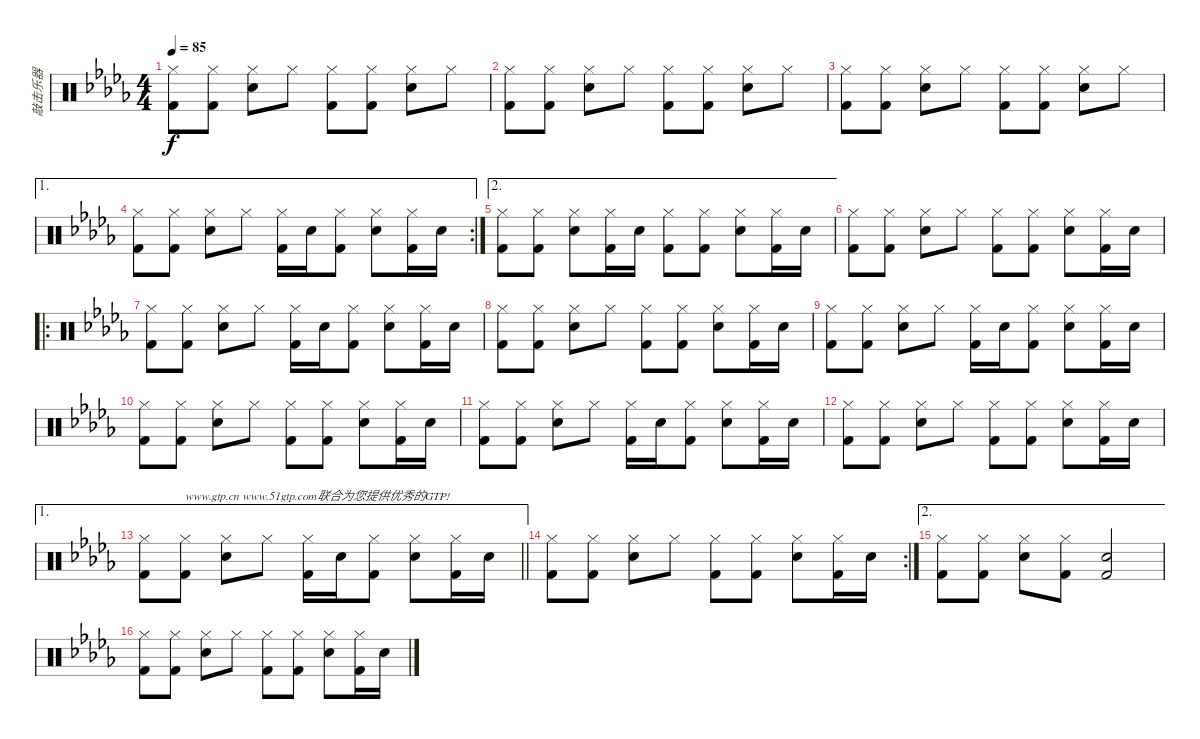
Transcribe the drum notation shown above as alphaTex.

\track ("敲击乐器" "敲击乐器") {instrument percussion}
\staff {score}
\articulation defaults
\ts (4 4)
\tempo 85
\clef neutral
\ks db
("Hi-Hat (closed)" "Kick (hit) 2").8{dy f} ("Hi-Hat (closed)" "Kick (hit) 2").8 ("Hi-Hat (closed)" "Electric Snare (hit)").8 "Hi-Hat (closed)".8 ("Hi-Hat (closed)" "Kick (hit) 2").8 ("Hi-Hat (closed)" "Kick (hit) 2").8 ("Hi-Hat (closed)" "Electric Snare (hit)").8 "Hi-Hat (closed)".8 |
("Hi-Hat (closed)" "Kick (hit) 2").8 ("Hi-Hat (closed)" "Kick (hit) 2").8 ("Hi-Hat (closed)" "Electric Snare (hit)").8 "Hi-Hat (closed)".8 ("Hi-Hat (closed)" "Kick (hit) 2").8 ("Hi-Hat (closed)" "Kick (hit) 2").8 ("Hi-Hat (closed)" "Electric Snare (hit)").8 "Hi-Hat (closed)".8 |
("Hi-Hat (closed)" "Kick (hit) 2").8 ("Hi-Hat (closed)" "Kick (hit) 2").8 ("Hi-Hat (closed)" "Electric Snare (hit)").8 "Hi-Hat (closed)".8 ("Hi-Hat (closed)" "Kick (hit) 2").8 ("Hi-Hat (closed)" "Kick (hit) 2").8 ("Hi-Hat (closed)" "Electric Snare (hit)").8 "Hi-Hat (closed)".8 |
\ae 1
\rc 2
("Hi-Hat (closed)" "Kick (hit) 2").8 ("Hi-Hat (closed)" "Kick (hit) 2").8 ("Hi-Hat (closed)" "Electric Snare (hit)").8 "Hi-Hat (closed)".8 ("Hi-Hat (closed)" "Kick (hit) 2").16 "Electric Snare (hit)".16 ("Hi-Hat (closed)" "Kick (hit) 2").8 ("Hi-Hat (closed)" "Electric Snare (hit)").8 ("Hi-Hat (closed)" "Kick (hit) 2").16 "Electric Snare (hit)".16 |
\ae 2
("Hi-Hat (closed)" "Kick (hit) 2").8 ("Hi-Hat (closed)" "Kick (hit) 2").8 ("Hi-Hat (closed)" "Electric Snare (hit)").8 ("Hi-Hat (closed)" "Kick (hit) 2").16 "Electric Snare (hit)".16 ("Hi-Hat (closed)" "Kick (hit) 2").8 ("Hi-Hat (closed)" "Kick (hit) 2").8 ("Hi-Hat (closed)" "Electric Snare (hit)").8 ("Hi-Hat (closed)" "Kick (hit) 2").16 "Electric Snare (hit)".16 |
("Hi-Hat (closed)" "Kick (hit) 2").8 ("Hi-Hat (closed)" "Kick (hit) 2").8 ("Hi-Hat (closed)" "Electric Snare (hit)").8 "Hi-Hat (closed)".8 ("Hi-Hat (closed)" "Kick (hit) 2").8 ("Hi-Hat (closed)" "Kick (hit) 2").8 ("Hi-Hat (closed)" "Electric Snare (hit)").8 ("Hi-Hat (closed)" "Kick (hit) 2").16 "Electric Snare (hit)".16 |
\ro
("Hi-Hat (closed)" "Kick (hit) 2").8 ("Hi-Hat (closed)" "Kick (hit) 2").8 ("Hi-Hat (closed)" "Electric Snare (hit)").8 "Hi-Hat (closed)".8 ("Hi-Hat (closed)" "Kick (hit) 2").16 "Electric Snare (hit)".16 ("Hi-Hat (closed)" "Kick (hit) 2").8 ("Hi-Hat (closed)" "Electric Snare (hit)").8 ("Hi-Hat (closed)" "Kick (hit) 2").16 "Electric Snare (hit)".16 |
("Hi-Hat (closed)" "Kick (hit) 2").8 ("Hi-Hat (closed)" "Kick (hit) 2").8 ("Hi-Hat (closed)" "Electric Snare (hit)").8 "Hi-Hat (closed)".8 ("Hi-Hat (closed)" "Kick (hit) 2").8 ("Hi-Hat (closed)" "Kick (hit) 2").8 ("Hi-Hat (closed)" "Electric Snare (hit)").8 ("Hi-Hat (closed)" "Kick (hit) 2").16 "Electric Snare (hit)".16 |
("Hi-Hat (closed)" "Kick (hit) 2").8 ("Hi-Hat (closed)" "Kick (hit) 2").8 ("Hi-Hat (closed)" "Electric Snare (hit)").8 "Hi-Hat (closed)".8 ("Hi-Hat (closed)" "Kick (hit) 2").16 "Electric Snare (hit)".16 ("Hi-Hat (closed)" "Kick (hit) 2").8 ("Hi-Hat (closed)" "Electric Snare (hit)").8 ("Hi-Hat (closed)" "Kick (hit) 2").16 "Electric Snare (hit)".16 |
("Hi-Hat (closed)" "Kick (hit) 2").8 ("Hi-Hat (closed)" "Kick (hit) 2").8 ("Hi-Hat (closed)" "Electric Snare (hit)").8 "Hi-Hat (closed)".8 ("Hi-Hat (closed)" "Kick (hit) 2").8 ("Hi-Hat (closed)" "Kick (hit) 2").8 ("Hi-Hat (closed)" "Electric Snare (hit)").8 ("Hi-Hat (closed)" "Kick (hit) 2").16 "Electric Snare (hit)".16 |
("Hi-Hat (closed)" "Kick (hit) 2").8 ("Hi-Hat (closed)" "Kick (hit) 2").8 ("Hi-Hat (closed)" "Electric Snare (hit)").8 "Hi-Hat (closed)".8 ("Hi-Hat (closed)" "Kick (hit) 2").16 "Electric Snare (hit)".16 ("Hi-Hat (closed)" "Kick (hit) 2").8 ("Hi-Hat (closed)" "Electric Snare (hit)").8 ("Hi-Hat (closed)" "Kick (hit) 2").16 "Electric Snare (hit)".16 |
("Hi-Hat (closed)" "Kick (hit) 2").8 ("Hi-Hat (closed)" "Kick (hit) 2").8 ("Hi-Hat (closed)" "Electric Snare (hit)").8 "Hi-Hat (closed)".8 ("Hi-Hat (closed)" "Kick (hit) 2").8 ("Hi-Hat (closed)" "Kick (hit) 2").8 ("Hi-Hat (closed)" "Electric Snare (hit)").8 ("Hi-Hat (closed)" "Kick (hit) 2").16 "Electric Snare (hit)".16 |
\ae 1
\barLineRight lightlight
("Hi-Hat (closed)" "Kick (hit) 2").8 ("Hi-Hat (closed)" "Kick (hit) 2").8{txt "www.gtp.cn www.51gtp.com联合为您提供优秀的GTP!"} ("Hi-Hat (closed)" "Electric Snare (hit)").8 "Hi-Hat (closed)".8 ("Hi-Hat (closed)" "Kick (hit) 2").16 "Electric Snare (hit)".16 ("Hi-Hat (closed)" "Kick (hit) 2").8 ("Hi-Hat (closed)" "Electric Snare (hit)").8 ("Hi-Hat (closed)" "Kick (hit) 2").16 "Electric Snare (hit)".16 |
\rc 2
("Hi-Hat (closed)" "Kick (hit) 2").8 ("Hi-Hat (closed)" "Kick (hit) 2").8 ("Hi-Hat (closed)" "Electric Snare (hit)").8 "Hi-Hat (closed)".8 ("Hi-Hat (closed)" "Kick (hit) 2").8 ("Hi-Hat (closed)" "Kick (hit) 2").8 ("Hi-Hat (closed)" "Electric Snare (hit)").8 ("Hi-Hat (closed)" "Kick (hit) 2").16 "Electric Snare (hit)".16 |
\ae 2
("Hi-Hat (closed)" "Kick (hit) 2").8 ("Hi-Hat (closed)" "Kick (hit) 2").8 ("Hi-Hat (closed)" "Electric Snare (hit)").8 ("Hi-Hat (closed)" "Kick (hit) 2").8 ("Electric Snare (hit)" "Kick (hit) 2").2 |
("Hi-Hat (closed)" "Kick (hit) 2").8 ("Hi-Hat (closed)" "Kick (hit) 2").8 ("Hi-Hat (closed)" "Electric Snare (hit)").8 "Hi-Hat (closed)".8 ("Hi-Hat (closed)" "Kick (hit) 2").8 ("Hi-Hat (closed)" "Kick (hit) 2").8 ("Hi-Hat (closed)" "Electric Snare (hit)").8 ("Hi-Hat (closed)" "Kick (hit) 2").16 "Electric Snare (hit)".16
